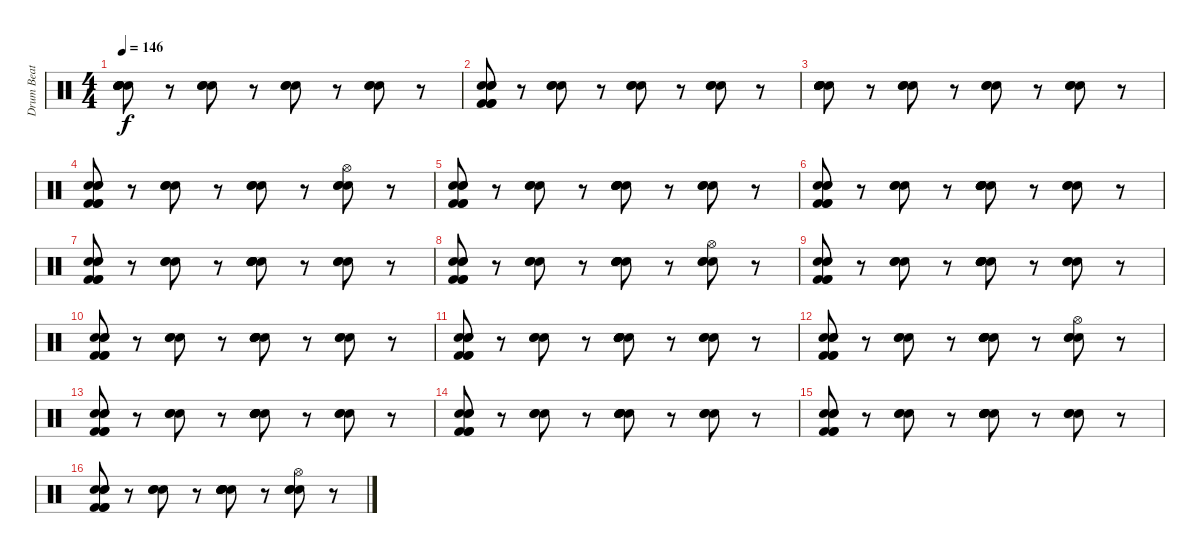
\track ("Drum Beat" "Drum Beat") {instrument percussion}
\staff {score}
\articulation defaults
\ts (4 4)
\tempo 146
\clef neutral
\ks c
("Hand Clap (hit)" "Hand Clap (hit)" "Hand Clap (hit)" "Electric Snare (hit)" "Electric Snare (hit)" "Electric Snare (hit)").8{dy f} r.8 ("Hand Clap (hit)" "Hand Clap (hit)" "Hand Clap (hit)").8 r.8 ("Hand Clap (hit)" "Hand Clap (hit)" "Hand Clap (hit)").8 r.8 ("Hand Clap (hit)" "Hand Clap (hit)" "Hand Clap (hit)").8 r.8 |
("Hand Clap (hit)" "Hand Clap (hit)" "Hand Clap (hit)" "Kick (hit) 2" "Kick (hit) 2" "Kick (hit) 2").8 r.8 ("Hand Clap (hit)" "Hand Clap (hit)" "Hand Clap (hit)").8 r.8 ("Hand Clap (hit)" "Hand Clap (hit)" "Hand Clap (hit)").8 r.8 ("Hand Clap (hit)" "Hand Clap (hit)" "Hand Clap (hit)").8 r.8 |
("Hand Clap (hit)" "Hand Clap (hit)" "Hand Clap (hit)" "Electric Snare (hit)" "Electric Snare (hit)" "Electric Snare (hit)").8 r.8 ("Hand Clap (hit)" "Hand Clap (hit)" "Hand Clap (hit)").8 r.8 ("Hand Clap (hit)" "Hand Clap (hit)" "Hand Clap (hit)").8 r.8 ("Hand Clap (hit)" "Hand Clap (hit)" "Hand Clap (hit)").8 r.8 |
("Hand Clap (hit)" "Hand Clap (hit)" "Hand Clap (hit)" "Kick (hit) 2" "Kick (hit) 2" "Kick (hit) 2").8 r.8 ("Hand Clap (hit)" "Hand Clap (hit)" "Hand Clap (hit)").8 r.8 ("Hand Clap (hit)" "Hand Clap (hit)" "Hand Clap (hit)").8 r.8 ("Hand Clap (hit)" "Hand Clap (hit)" "Hand Clap (hit)" "Hi-Hat (open)").8 r.8 |
("Hand Clap (hit)" "Hand Clap (hit)" "Hand Clap (hit)" "Kick (hit) 2" "Kick (hit) 2" "Kick (hit) 2").8 r.8 ("Hand Clap (hit)" "Hand Clap (hit)" "Hand Clap (hit)").8 r.8 ("Hand Clap (hit)" "Hand Clap (hit)" "Hand Clap (hit)" "Electric Snare (hit)" "Electric Snare (hit)" "Electric Snare (hit)").8 r.8 ("Hand Clap (hit)" "Hand Clap (hit)" "Hand Clap (hit)").8 r.8 |
("Hand Clap (hit)" "Hand Clap (hit)" "Hand Clap (hit)" "Kick (hit) 2" "Kick (hit) 2" "Kick (hit) 2").8 r.8 ("Hand Clap (hit)" "Hand Clap (hit)" "Hand Clap (hit)").8 r.8 ("Hand Clap (hit)" "Hand Clap (hit)" "Hand Clap (hit)" "Electric Snare (hit)" "Electric Snare (hit)" "Electric Snare (hit)").8 r.8 ("Hand Clap (hit)" "Hand Clap (hit)" "Hand Clap (hit)").8 r.8 |
("Hand Clap (hit)" "Hand Clap (hit)" "Hand Clap (hit)" "Kick (hit) 2" "Kick (hit) 2" "Kick (hit) 2").8 r.8 ("Hand Clap (hit)" "Hand Clap (hit)" "Hand Clap (hit)").8 r.8 ("Hand Clap (hit)" "Hand Clap (hit)" "Hand Clap (hit)" "Electric Snare (hit)" "Electric Snare (hit)" "Electric Snare (hit)").8 r.8 ("Hand Clap (hit)" "Hand Clap (hit)" "Hand Clap (hit)").8 r.8 |
("Hand Clap (hit)" "Hand Clap (hit)" "Hand Clap (hit)" "Kick (hit) 2" "Kick (hit) 2" "Kick (hit) 2").8 r.8 ("Hand Clap (hit)" "Hand Clap (hit)" "Hand Clap (hit)").8 r.8 ("Hand Clap (hit)" "Hand Clap (hit)" "Hand Clap (hit)" "Electric Snare (hit)" "Electric Snare (hit)" "Electric Snare (hit)").8 r.8 ("Hand Clap (hit)" "Hand Clap (hit)" "Hand Clap (hit)" "Hi-Hat (open)").8 r.8 |
("Hand Clap (hit)" "Hand Clap (hit)" "Hand Clap (hit)" "Kick (hit) 2" "Kick (hit) 2" "Kick (hit) 2").8 r.8 ("Hand Clap (hit)" "Hand Clap (hit)" "Hand Clap (hit)").8 r.8 ("Hand Clap (hit)" "Hand Clap (hit)" "Hand Clap (hit)" "Electric Snare (hit)" "Electric Snare (hit)" "Electric Snare (hit)").8 r.8 ("Hand Clap (hit)" "Hand Clap (hit)" "Hand Clap (hit)").8 r.8 |
("Hand Clap (hit)" "Hand Clap (hit)" "Hand Clap (hit)" "Kick (hit) 2" "Kick (hit) 2" "Kick (hit) 2").8 r.8 ("Hand Clap (hit)" "Hand Clap (hit)" "Hand Clap (hit)").8 r.8 ("Hand Clap (hit)" "Hand Clap (hit)" "Hand Clap (hit)" "Electric Snare (hit)" "Electric Snare (hit)" "Electric Snare (hit)").8 r.8 ("Hand Clap (hit)" "Hand Clap (hit)" "Hand Clap (hit)").8 r.8 |
("Hand Clap (hit)" "Hand Clap (hit)" "Hand Clap (hit)" "Kick (hit) 2" "Kick (hit) 2" "Kick (hit) 2").8 r.8 ("Hand Clap (hit)" "Hand Clap (hit)" "Hand Clap (hit)").8 r.8 ("Hand Clap (hit)" "Hand Clap (hit)" "Hand Clap (hit)" "Electric Snare (hit)" "Electric Snare (hit)" "Electric Snare (hit)").8 r.8 ("Hand Clap (hit)" "Hand Clap (hit)" "Hand Clap (hit)").8 r.8 |
("Hand Clap (hit)" "Hand Clap (hit)" "Hand Clap (hit)" "Kick (hit) 2" "Kick (hit) 2" "Kick (hit) 2").8 r.8 ("Hand Clap (hit)" "Hand Clap (hit)" "Hand Clap (hit)").8 r.8 ("Hand Clap (hit)" "Hand Clap (hit)" "Hand Clap (hit)" "Electric Snare (hit)" "Electric Snare (hit)" "Electric Snare (hit)").8 r.8 ("Hand Clap (hit)" "Hand Clap (hit)" "Hand Clap (hit)" "Hi-Hat (open)").8 r.8 |
("Hand Clap (hit)" "Hand Clap (hit)" "Hand Clap (hit)" "Kick (hit) 2" "Kick (hit) 2" "Kick (hit) 2").8 r.8 ("Hand Clap (hit)" "Hand Clap (hit)" "Hand Clap (hit)").8 r.8 ("Hand Clap (hit)" "Hand Clap (hit)" "Hand Clap (hit)" "Electric Snare (hit)" "Electric Snare (hit)" "Electric Snare (hit)").8 r.8 ("Hand Clap (hit)" "Hand Clap (hit)" "Hand Clap (hit)").8 r.8 |
("Hand Clap (hit)" "Hand Clap (hit)" "Hand Clap (hit)" "Kick (hit) 2" "Kick (hit) 2" "Kick (hit) 2").8 r.8 ("Hand Clap (hit)" "Hand Clap (hit)" "Hand Clap (hit)").8 r.8 ("Hand Clap (hit)" "Hand Clap (hit)" "Hand Clap (hit)" "Electric Snare (hit)" "Electric Snare (hit)" "Electric Snare (hit)").8 r.8 ("Hand Clap (hit)" "Hand Clap (hit)" "Hand Clap (hit)").8 r.8 |
("Hand Clap (hit)" "Hand Clap (hit)" "Hand Clap (hit)" "Kick (hit) 2" "Kick (hit) 2" "Kick (hit) 2").8 r.8 ("Hand Clap (hit)" "Hand Clap (hit)" "Hand Clap (hit)").8 r.8 ("Hand Clap (hit)" "Hand Clap (hit)" "Hand Clap (hit)" "Electric Snare (hit)" "Electric Snare (hit)" "Electric Snare (hit)").8 r.8 ("Hand Clap (hit)" "Hand Clap (hit)" "Hand Clap (hit)").8 r.8 |
("Hand Clap (hit)" "Hand Clap (hit)" "Hand Clap (hit)" "Kick (hit) 2" "Kick (hit) 2" "Kick (hit) 2").8 r.8 ("Hand Clap (hit)" "Hand Clap (hit)" "Hand Clap (hit)").8 r.8 ("Hand Clap (hit)" "Hand Clap (hit)" "Hand Clap (hit)" "Electric Snare (hit)" "Electric Snare (hit)" "Electric Snare (hit)").8 r.8 ("Hand Clap (hit)" "Hand Clap (hit)" "Hand Clap (hit)" "Hi-Hat (open)").8 r.8
